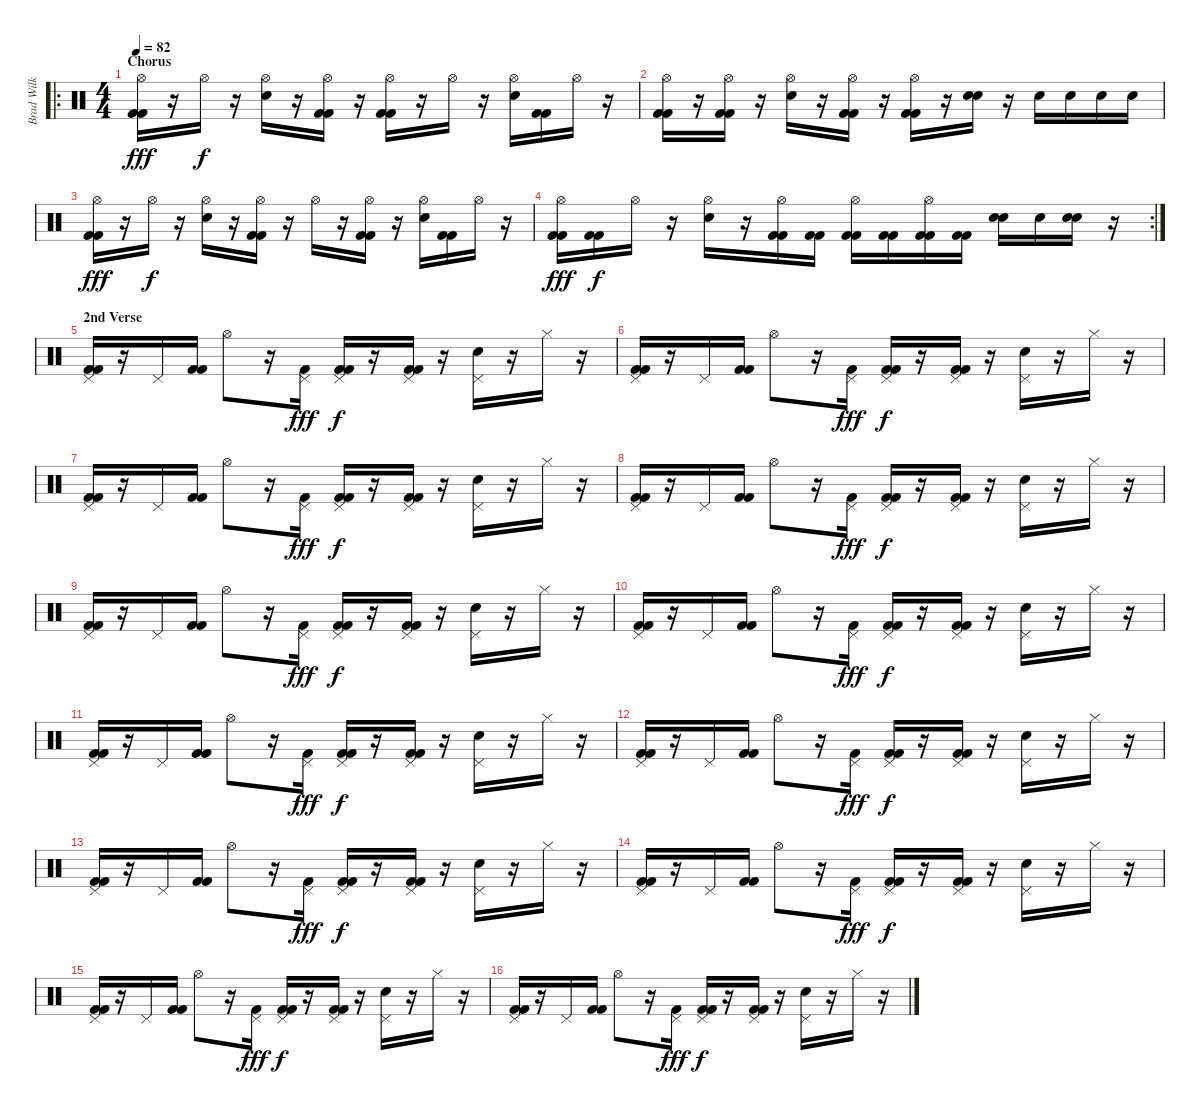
\track ("Brad Wilk" "Brad Wilk") {instrument percussion}
\staff {score}
\articulation defaults
\ro
\ts (4 4)
\section ("" "Chorus")
\tempo 82
\clef neutral
\ks c
("Hi-Hat (open)" "Kick (hit) 2" "Kick (hit) 2").16{dy fff} r.16 "Hi-Hat (open)".16{dy f} r.16 ("Hi-Hat (open)" "Snare (hit) 2").16 r.16 ("Hi-Hat (open)" "Kick (hit) 2" "Kick (hit) 2").16 r.16 ("Hi-Hat (open)" "Kick (hit) 2" "Kick (hit) 2").16 r.16 "Hi-Hat (open)".16 r.16 ("Hi-Hat (open)" "Snare (hit) 2").16 ("Kick (hit) 2" "Kick (hit) 2").16 "Hi-Hat (open)".16 r.16 |
("Hi-Hat (open)" "Kick (hit) 2" "Kick (hit) 2").16 r.16 ("Hi-Hat (open)" "Kick (hit) 2" "Kick (hit) 2").16 r.16 ("Hi-Hat (open)" "Snare (hit) 2").16 r.16 ("Hi-Hat (open)" "Kick (hit) 2" "Kick (hit) 2").16 r.16 ("Hi-Hat (open)" "Kick (hit) 2" "Kick (hit) 2").16 r.16 ("Electric Snare (hit)" "Electric Snare (hit)").16{bd 240} r.16 "Electric Snare (hit)".16 "Electric Snare (hit)".16 "Electric Snare (hit)".16 "Electric Snare (hit)".16 |
("Hi-Hat (open)" "Kick (hit) 2" "Kick (hit) 2").16{dy fff} r.16 "Hi-Hat (open)".16{dy f} r.16 ("Hi-Hat (open)" "Snare (hit) 2").16 r.16 ("Hi-Hat (open)" "Kick (hit) 2" "Kick (hit) 2").16 r.16 "Hi-Hat (open)".16 r.16 ("Hi-Hat (open)" "Kick (hit) 2" "Kick (hit) 2").16 r.16 ("Hi-Hat (open)" "Snare (hit) 2").16 ("Kick (hit) 2" "Kick (hit) 2").16 "Hi-Hat (open)".16 r.16 |
\rc 2
("Hi-Hat (open)" "Kick (hit) 2" "Kick (hit) 2").16{dy fff} ("Kick (hit) 2" "Kick (hit) 2").16{dy f} "Hi-Hat (open)".16 r.16 ("Hi-Hat (open)" "Snare (hit) 2").16 r.16 ("Hi-Hat (open)" "Kick (hit) 2" "Kick (hit) 2").16 ("Kick (hit) 2" "Kick (hit) 2").16 ("Hi-Hat (open)" "Kick (hit) 2" "Kick (hit) 2").16 ("Kick (hit) 2" "Kick (hit) 2").16 ("Hi-Hat (open)" "Kick (hit) 2" "Kick (hit) 2").16 ("Kick (hit) 2" "Kick (hit) 2").16 ("Electric Snare (hit)" "Electric Snare (hit)").16{bd 240} "Electric Snare (hit)".16 ("Snare (hit) 2" "Snare (hit) 2").16 r.16 |
\section ("" "2nd Verse")
("Pedal Hi-Hat (hit)" "Kick (hit) 2" "Kick (hit) 2").16 r.16 "Pedal Hi-Hat (hit)".16 ("Kick (hit) 2" "Kick (hit) 2").16 "Hi-Hat (open)".8 r.16 ("Pedal Hi-Hat (hit)" "Kick (hit) 2").16{dy fff} ("Pedal Hi-Hat (hit)" "Kick (hit) 2" "Kick (hit) 2").16{dy f} r.16 ("Pedal Hi-Hat (hit)" "Kick (hit) 2" "Kick (hit) 2").16 r.16 ("Pedal Hi-Hat (hit)" "Snare (hit) 2").16 r.16 "Hi-Hat (closed)".16 r.16 |
("Pedal Hi-Hat (hit)" "Kick (hit) 2" "Kick (hit) 2").16 r.16 "Pedal Hi-Hat (hit)".16 ("Kick (hit) 2" "Kick (hit) 2").16 "Hi-Hat (open)".8 r.16 ("Pedal Hi-Hat (hit)" "Kick (hit) 2").16{dy fff} ("Pedal Hi-Hat (hit)" "Kick (hit) 2" "Kick (hit) 2").16{dy f} r.16 ("Pedal Hi-Hat (hit)" "Kick (hit) 2" "Kick (hit) 2").16 r.16 ("Pedal Hi-Hat (hit)" "Snare (hit) 2").16 r.16 "Hi-Hat (closed)".16 r.16 |
("Pedal Hi-Hat (hit)" "Kick (hit) 2" "Kick (hit) 2").16 r.16 "Pedal Hi-Hat (hit)".16 ("Kick (hit) 2" "Kick (hit) 2").16 "Hi-Hat (open)".8 r.16 ("Pedal Hi-Hat (hit)" "Kick (hit) 2").16{dy fff} ("Pedal Hi-Hat (hit)" "Kick (hit) 2" "Kick (hit) 2").16{dy f} r.16 ("Pedal Hi-Hat (hit)" "Kick (hit) 2" "Kick (hit) 2").16 r.16 ("Pedal Hi-Hat (hit)" "Snare (hit) 2").16 r.16 "Hi-Hat (closed)".16 r.16 |
("Pedal Hi-Hat (hit)" "Kick (hit) 2" "Kick (hit) 2").16 r.16 "Pedal Hi-Hat (hit)".16 ("Kick (hit) 2" "Kick (hit) 2").16 "Hi-Hat (open)".8 r.16 ("Pedal Hi-Hat (hit)" "Kick (hit) 2").16{dy fff} ("Pedal Hi-Hat (hit)" "Kick (hit) 2" "Kick (hit) 2").16{dy f} r.16 ("Pedal Hi-Hat (hit)" "Kick (hit) 2" "Kick (hit) 2").16 r.16 ("Pedal Hi-Hat (hit)" "Snare (hit) 2").16 r.16 "Hi-Hat (closed)".16 r.16 |
("Pedal Hi-Hat (hit)" "Kick (hit) 2" "Kick (hit) 2").16 r.16 "Pedal Hi-Hat (hit)".16 ("Kick (hit) 2" "Kick (hit) 2").16 "Hi-Hat (open)".8 r.16 ("Pedal Hi-Hat (hit)" "Kick (hit) 2").16{dy fff} ("Pedal Hi-Hat (hit)" "Kick (hit) 2" "Kick (hit) 2").16{dy f} r.16 ("Pedal Hi-Hat (hit)" "Kick (hit) 2" "Kick (hit) 2").16 r.16 ("Pedal Hi-Hat (hit)" "Snare (hit) 2").16 r.16 "Hi-Hat (closed)".16 r.16 |
("Pedal Hi-Hat (hit)" "Kick (hit) 2" "Kick (hit) 2").16 r.16 "Pedal Hi-Hat (hit)".16 ("Kick (hit) 2" "Kick (hit) 2").16 "Hi-Hat (open)".8 r.16 ("Pedal Hi-Hat (hit)" "Kick (hit) 2").16{dy fff} ("Pedal Hi-Hat (hit)" "Kick (hit) 2" "Kick (hit) 2").16{dy f} r.16 ("Pedal Hi-Hat (hit)" "Kick (hit) 2" "Kick (hit) 2").16 r.16 ("Pedal Hi-Hat (hit)" "Snare (hit) 2").16 r.16 "Hi-Hat (closed)".16 r.16 |
("Pedal Hi-Hat (hit)" "Kick (hit) 2" "Kick (hit) 2").16 r.16 "Pedal Hi-Hat (hit)".16 ("Kick (hit) 2" "Kick (hit) 2").16 "Hi-Hat (open)".8 r.16 ("Pedal Hi-Hat (hit)" "Kick (hit) 2").16{dy fff} ("Pedal Hi-Hat (hit)" "Kick (hit) 2" "Kick (hit) 2").16{dy f} r.16 ("Pedal Hi-Hat (hit)" "Kick (hit) 2" "Kick (hit) 2").16 r.16 ("Pedal Hi-Hat (hit)" "Snare (hit) 2").16 r.16 "Hi-Hat (closed)".16 r.16 |
("Pedal Hi-Hat (hit)" "Kick (hit) 2" "Kick (hit) 2").16 r.16 "Pedal Hi-Hat (hit)".16 ("Kick (hit) 2" "Kick (hit) 2").16 "Hi-Hat (open)".8 r.16 ("Pedal Hi-Hat (hit)" "Kick (hit) 2").16{dy fff} ("Pedal Hi-Hat (hit)" "Kick (hit) 2" "Kick (hit) 2").16{dy f} r.16 ("Pedal Hi-Hat (hit)" "Kick (hit) 2" "Kick (hit) 2").16 r.16 ("Pedal Hi-Hat (hit)" "Snare (hit) 2").16 r.16 "Hi-Hat (closed)".16 r.16 |
("Pedal Hi-Hat (hit)" "Kick (hit) 2" "Kick (hit) 2").16 r.16 "Pedal Hi-Hat (hit)".16 ("Kick (hit) 2" "Kick (hit) 2").16 "Hi-Hat (open)".8 r.16 ("Pedal Hi-Hat (hit)" "Kick (hit) 2").16{dy fff} ("Pedal Hi-Hat (hit)" "Kick (hit) 2" "Kick (hit) 2").16{dy f} r.16 ("Pedal Hi-Hat (hit)" "Kick (hit) 2" "Kick (hit) 2").16 r.16 ("Pedal Hi-Hat (hit)" "Snare (hit) 2").16 r.16 "Hi-Hat (closed)".16 r.16 |
("Pedal Hi-Hat (hit)" "Kick (hit) 2" "Kick (hit) 2").16 r.16 "Pedal Hi-Hat (hit)".16 ("Kick (hit) 2" "Kick (hit) 2").16 "Hi-Hat (open)".8 r.16 ("Pedal Hi-Hat (hit)" "Kick (hit) 2").16{dy fff} ("Pedal Hi-Hat (hit)" "Kick (hit) 2" "Kick (hit) 2").16{dy f} r.16 ("Pedal Hi-Hat (hit)" "Kick (hit) 2" "Kick (hit) 2").16 r.16 ("Pedal Hi-Hat (hit)" "Snare (hit) 2").16 r.16 "Hi-Hat (closed)".16 r.16 |
("Pedal Hi-Hat (hit)" "Kick (hit) 2" "Kick (hit) 2").16 r.16 "Pedal Hi-Hat (hit)".16 ("Kick (hit) 2" "Kick (hit) 2").16 "Hi-Hat (open)".8 r.16 ("Pedal Hi-Hat (hit)" "Kick (hit) 2").16{dy fff} ("Pedal Hi-Hat (hit)" "Kick (hit) 2" "Kick (hit) 2").16{dy f} r.16 ("Pedal Hi-Hat (hit)" "Kick (hit) 2" "Kick (hit) 2").16 r.16 ("Pedal Hi-Hat (hit)" "Snare (hit) 2").16 r.16 "Hi-Hat (closed)".16 r.16 |
("Pedal Hi-Hat (hit)" "Kick (hit) 2" "Kick (hit) 2").16 r.16 "Pedal Hi-Hat (hit)".16 ("Kick (hit) 2" "Kick (hit) 2").16 "Hi-Hat (open)".8 r.16 ("Pedal Hi-Hat (hit)" "Kick (hit) 2").16{dy fff} ("Pedal Hi-Hat (hit)" "Kick (hit) 2" "Kick (hit) 2").16{dy f} r.16 ("Pedal Hi-Hat (hit)" "Kick (hit) 2" "Kick (hit) 2").16 r.16 ("Pedal Hi-Hat (hit)" "Snare (hit) 2").16 r.16 "Hi-Hat (closed)".16 r.16
